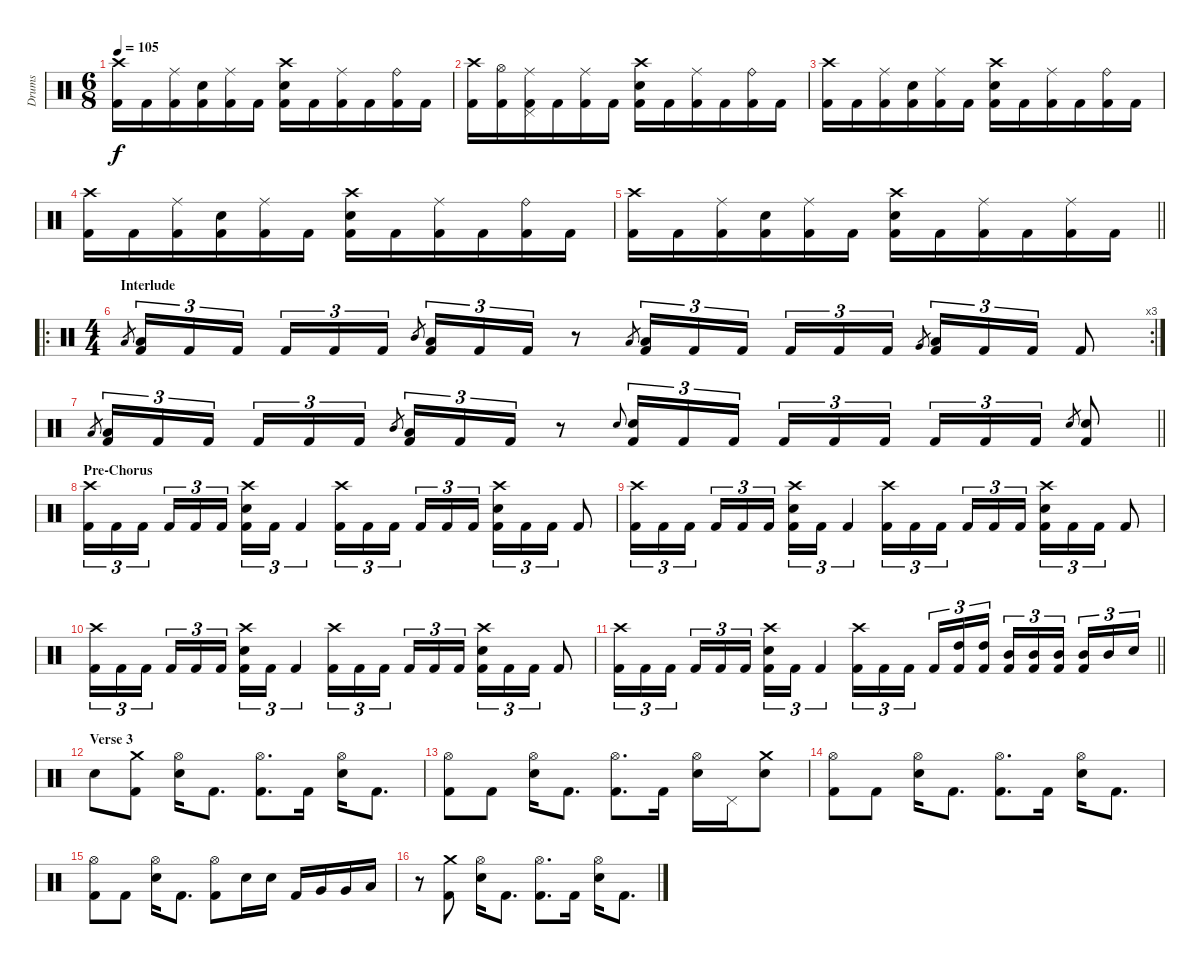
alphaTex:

\track ("Drums" "Drums") {instrument percussion}
\staff {score}
\articulation defaults
\ts (6 8)
\tempo 105
\clef neutral
\ks c
("Crash high (hit)" "Kick (hit) 2").16{dy f} "Kick (hit) 2".16 ("Ride (middle)" "Kick (hit) 2").16 ("Electric Snare (hit)" "Kick (hit) 2").16 ("Ride (middle)" "Kick (hit) 2").16 "Kick (hit) 2".16 ("Crash high (hit)" "Electric Snare (hit)" "Kick (hit) 2").16 "Kick (hit) 2".16 ("Ride (middle)" "Kick (hit) 2").16 "Kick (hit) 2".16 ("Ride (bell)" "Kick (hit) 2").16 "Kick (hit) 2".16 |
("Crash high (hit)" "Kick (hit) 2").16 ("Hi-Hat (open)" "Kick (hit) 2").16 ("Ride (middle)" "Pedal Hi-Hat (hit)" "Kick (hit) 2").16 "Kick (hit) 2".16 ("Ride (middle)" "Kick (hit) 2").16 "Kick (hit) 2".16 ("Crash high (hit)" "Electric Snare (hit)" "Kick (hit) 2").16 "Kick (hit) 2".16 ("Ride (middle)" "Kick (hit) 2").16 "Kick (hit) 2".16 ("Ride (bell)" "Kick (hit) 2").16 "Kick (hit) 2".16 |
("Crash high (hit)" "Kick (hit) 2").16 "Kick (hit) 2".16 ("Ride (middle)" "Kick (hit) 2").16 ("Electric Snare (hit)" "Kick (hit) 2").16 ("Ride (middle)" "Kick (hit) 2").16 "Kick (hit) 2".16 ("Crash high (hit)" "Electric Snare (hit)" "Kick (hit) 2").16 "Kick (hit) 2".16 ("Ride (middle)" "Kick (hit) 2").16 "Kick (hit) 2".16 ("Ride (bell)" "Kick (hit) 2").16 "Kick (hit) 2".16 |
("Crash high (hit)" "Kick (hit) 2").16 "Kick (hit) 2".16 ("Ride (middle)" "Kick (hit) 2").16 ("Electric Snare (hit)" "Kick (hit) 2").16 ("Ride (middle)" "Kick (hit) 2").16 "Kick (hit) 2".16 ("Crash high (hit)" "Electric Snare (hit)" "Kick (hit) 2").16 "Kick (hit) 2".16 ("Ride (middle)" "Kick (hit) 2").16 "Kick (hit) 2".16 ("Ride (bell)" "Kick (hit) 2").16 "Kick (hit) 2".16 |
\barLineRight lightlight
("Crash high (hit)" "Kick (hit) 2").16 "Kick (hit) 2".16 ("Ride (middle)" "Kick (hit) 2").16 ("Electric Snare (hit)" "Kick (hit) 2").16 ("Ride (middle)" "Kick (hit) 2").16 "Kick (hit) 2".16 ("Crash high (hit)" "Electric Snare (hit)" "Kick (hit) 2").16 "Kick (hit) 2".16 ("Ride (middle)" "Kick (hit) 2").16 "Kick (hit) 2".16 ("Ride (middle)" "Kick (hit) 2").16 "Kick (hit) 2".16 |
\ro
\rc 3
\ts (4 4)
\section ("" "Interlude")
"Low Tom (hit)".8{gr} ("Low Floor Tom (hit)" "Kick (hit) 2").16{tu (3 2)} "Kick (hit) 2".16{tu (3 2)} "Kick (hit) 2".16{tu (3 2) beam splitsecondary} "Kick (hit) 2".16{tu (3 2)} "Kick (hit) 2".16{tu (3 2)} "Kick (hit) 2".16{tu (3 2)} "Mid Tom (hit)".8{gr} ("Low Floor Tom (hit)" "Kick (hit) 2").16{tu (3 2)} "Kick (hit) 2".16{tu (3 2)} "Kick (hit) 2".16{tu (3 2)} r.8 "Low Tom (hit)".8{gr} ("Low Floor Tom (hit)" "Kick (hit) 2").16{tu (3 2)} "Kick (hit) 2".16{tu (3 2)} "Kick (hit) 2".16{tu (3 2) beam splitsecondary} "Kick (hit) 2".16{tu (3 2)} "Kick (hit) 2".16{tu (3 2)} "Kick (hit) 2".16{tu (3 2)} "Very Low Tom (hit)".8{gr} ("Low Floor Tom (hit)" "Kick (hit) 2").16{tu (3 2)} "Kick (hit) 2".16{tu (3 2)} "Kick (hit) 2".16{tu (3 2)} "Kick (hit) 2".8 |
\barLineRight lightlight "Low Tom (hit)".8{gr}
("Low Floor Tom (hit)" "Kick (hit) 2").16{tu (3 2)} "Kick (hit) 2".16{tu (3 2)} "Kick (hit) 2".16{tu (3 2) beam splitsecondary} "Kick (hit) 2".16{tu (3 2)} "Kick (hit) 2".16{tu (3 2)} "Kick (hit) 2".16{tu (3 2)} "Mid Tom (hit)".8{gr} ("Low Floor Tom (hit)" "Kick (hit) 2").16{tu (3 2)} "Kick (hit) 2".16{tu (3 2)} "Kick (hit) 2".16{tu (3 2)} r.8 "Electric Snare (hit)".8{gr onbeat} ("Electric Snare (hit)" "Kick (hit) 2").16{tu (3 2)} "Kick (hit) 2".16{tu (3 2)} "Kick (hit) 2".16{tu (3 2) beam splitsecondary} "Kick (hit) 2".16{tu (3 2)} "Kick (hit) 2".16{tu (3 2)} "Kick (hit) 2".16{tu (3 2)} "Kick (hit) 2".16{tu (3 2)} "Kick (hit) 2".16{tu (3 2)} "Kick (hit) 2".16{tu (3 2)} "Electric Snare (hit)".8{gr} ("Electric Snare (hit)" "Kick (hit) 2").8 |
\section ("" "Pre-Chorus")
("Crash high (hit)" "Kick (hit) 2").16{tu (3 2)} "Kick (hit) 2".16{tu (3 2)} "Kick (hit) 2".16{tu (3 2) beam splitsecondary} "Kick (hit) 2".16{tu (3 2)} "Kick (hit) 2".16{tu (3 2)} "Kick (hit) 2".16{tu (3 2)} ("Crash high (hit)" "Electric Snare (hit)" "Kick (hit) 2").16{tu (3 2)} "Kick (hit) 2".16{tu (3 2)} "Kick (hit) 2".4{tu (3 2)} ("Crash high (hit)" "Kick (hit) 2").16{tu (3 2)} "Kick (hit) 2".16{tu (3 2)} "Kick (hit) 2".16{tu (3 2) beam splitsecondary} "Kick (hit) 2".16{tu (3 2)} "Kick (hit) 2".16{tu (3 2)} "Kick (hit) 2".16{tu (3 2)} ("Crash high (hit)" "Electric Snare (hit)" "Kick (hit) 2").16{tu (3 2)} "Kick (hit) 2".16{tu (3 2)} "Kick (hit) 2".16{tu (3 2)} "Kick (hit) 2".8 |
("Crash high (hit)" "Kick (hit) 2").16{tu (3 2)} "Kick (hit) 2".16{tu (3 2)} "Kick (hit) 2".16{tu (3 2) beam splitsecondary} "Kick (hit) 2".16{tu (3 2)} "Kick (hit) 2".16{tu (3 2)} "Kick (hit) 2".16{tu (3 2)} ("Crash high (hit)" "Electric Snare (hit)" "Kick (hit) 2").16{tu (3 2)} "Kick (hit) 2".16{tu (3 2)} "Kick (hit) 2".4{tu (3 2)} ("Crash high (hit)" "Kick (hit) 2").16{tu (3 2)} "Kick (hit) 2".16{tu (3 2)} "Kick (hit) 2".16{tu (3 2) beam splitsecondary} "Kick (hit) 2".16{tu (3 2)} "Kick (hit) 2".16{tu (3 2)} "Kick (hit) 2".16{tu (3 2)} ("Crash high (hit)" "Electric Snare (hit)" "Kick (hit) 2").16{tu (3 2)} "Kick (hit) 2".16{tu (3 2)} "Kick (hit) 2".16{tu (3 2)} "Kick (hit) 2".8 |
("Crash high (hit)" "Kick (hit) 2").16{tu (3 2)} "Kick (hit) 2".16{tu (3 2)} "Kick (hit) 2".16{tu (3 2) beam splitsecondary} "Kick (hit) 2".16{tu (3 2)} "Kick (hit) 2".16{tu (3 2)} "Kick (hit) 2".16{tu (3 2)} ("Crash high (hit)" "Electric Snare (hit)" "Kick (hit) 2").16{tu (3 2)} "Kick (hit) 2".16{tu (3 2)} "Kick (hit) 2".4{tu (3 2)} ("Crash high (hit)" "Kick (hit) 2").16{tu (3 2)} "Kick (hit) 2".16{tu (3 2)} "Kick (hit) 2".16{tu (3 2) beam splitsecondary} "Kick (hit) 2".16{tu (3 2)} "Kick (hit) 2".16{tu (3 2)} "Kick (hit) 2".16{tu (3 2)} ("Crash high (hit)" "Electric Snare (hit)" "Kick (hit) 2").16{tu (3 2)} "Kick (hit) 2".16{tu (3 2)} "Kick (hit) 2".16{tu (3 2)} "Kick (hit) 2".8 |
\barLineRight lightlight
("Crash high (hit)" "Kick (hit) 2").16{tu (3 2)} "Kick (hit) 2".16{tu (3 2)} "Kick (hit) 2".16{tu (3 2) beam splitsecondary} "Kick (hit) 2".16{tu (3 2)} "Kick (hit) 2".16{tu (3 2)} "Kick (hit) 2".16{tu (3 2)} ("Crash high (hit)" "Electric Snare (hit)" "Kick (hit) 2").16{tu (3 2)} "Kick (hit) 2".16{tu (3 2)} "Kick (hit) 2".4{tu (3 2)} ("Crash high (hit)" "Kick (hit) 2").16{tu (3 2)} "Kick (hit) 2".16{tu (3 2)} "Kick (hit) 2".16{tu (3 2) beam splitsecondary} "Kick (hit) 2".16{tu (3 2)} ("High Tom (hit)" "Kick (hit) 2").16{tu (3 2)} ("High Tom (hit)" "Kick (hit) 2").16{tu (3 2)} ("Mid Tom (hit)" "Kick (hit) 2").16{tu (3 2)} ("Mid Tom (hit)" "Kick (hit) 2").16{tu (3 2)} ("Mid Tom (hit)" "Kick (hit) 2").16{tu (3 2) beam splitsecondary} ("Mid Tom (hit)" "Kick (hit) 2").16{tu (3 2)} "Mid Tom (hit)".16{tu (3 2)} "Electric Snare (hit)".16{tu (3 2)} |
\section ("" "Verse 3")
"Electric Snare (hit)".8 ("Crash medium (hit)" "Kick (hit) 2").8 ("Hi-Hat (open)" "Electric Snare (hit)").16 "Kick (hit) 2".8{d} ("Hi-Hat (open)" "Kick (hit) 2").8{d} "Kick (hit) 2".16 ("Hi-Hat (open)" "Electric Snare (hit)").16 "Kick (hit) 2".8{d} |
("Hi-Hat (open)" "Kick (hit) 2").8 "Kick (hit) 2".8 ("Hi-Hat (open)" "Electric Snare (hit)").16 "Kick (hit) 2".8{d} ("Hi-Hat (open)" "Kick (hit) 2").8{d} "Kick (hit) 2".16 ("Hi-Hat (open)" "Electric Snare (hit)").16 "Pedal Hi-Hat (hit)".16 ("Crash medium (hit)" "Electric Snare (hit)").8 |
("Hi-Hat (open)" "Kick (hit) 2").8 "Kick (hit) 2".8 ("Hi-Hat (open)" "Electric Snare (hit)").16 "Kick (hit) 2".8{d} ("Hi-Hat (open)" "Kick (hit) 2").8{d} "Kick (hit) 2".16 ("Hi-Hat (open)" "Electric Snare (hit)").16 "Kick (hit) 2".8{d} |
("Hi-Hat (open)" "Kick (hit) 2").8 "Kick (hit) 2".8 ("Hi-Hat (open)" "Electric Snare (hit)").16 "Kick (hit) 2".8{d} ("Hi-Hat (open)" "Kick (hit) 2").8 "Electric Snare (hit)".16 "Electric Snare (hit)".16 "Kick (hit) 2".16 "Very Low Tom (hit)".16 "Very Low Tom (hit)".16 "Low Floor Tom (hit)".16 |
r.8 ("Crash medium (hit)" "Kick (hit) 2").8 ("Hi-Hat (open)" "Electric Snare (hit)").16 "Kick (hit) 2".8{d} ("Hi-Hat (open)" "Kick (hit) 2").8{d} "Kick (hit) 2".16 ("Hi-Hat (open)" "Electric Snare (hit)").16 "Kick (hit) 2".8{d}
